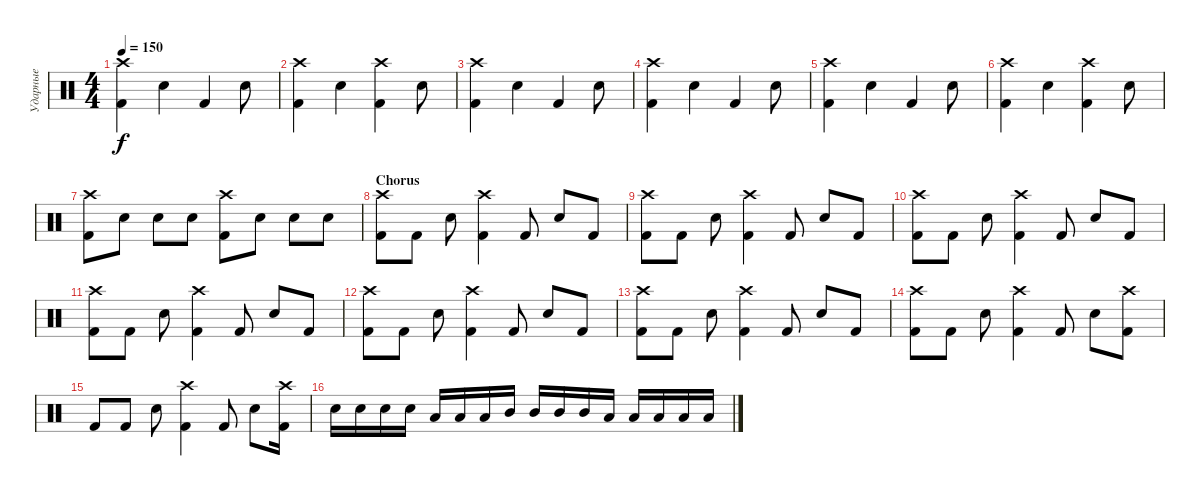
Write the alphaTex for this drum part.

\track ("Ударные" "Ударные") {instrument percussion}
\staff {score}
\articulation defaults
\ts (4 4)
\tempo 150
\clef neutral
\ks c
("Crash high (hit)" "Kick (hit) 2").4{dy f} "Electric Snare (hit)".4 "Kick (hit) 2".4 "Electric Snare (hit)".8 |
("Crash high (hit)" "Kick (hit) 2").4 "Electric Snare (hit)".4 ("Crash high (hit)" "Kick (hit) 2").4 "Electric Snare (hit)".8 |
("Crash high (hit)" "Kick (hit) 2").4 "Electric Snare (hit)".4 "Kick (hit) 2".4 "Electric Snare (hit)".8 |
("Crash high (hit)" "Kick (hit) 2").4 "Electric Snare (hit)".4 "Kick (hit) 2".4 "Electric Snare (hit)".8 |
("Crash high (hit)" "Kick (hit) 2").4 "Electric Snare (hit)".4 "Kick (hit) 2".4 "Electric Snare (hit)".8 |
("Crash high (hit)" "Kick (hit) 2").4 "Electric Snare (hit)".4 ("Crash high (hit)" "Kick (hit) 2").4 "Electric Snare (hit)".8 |
("Crash high (hit)" "Kick (hit) 2").8 "Electric Snare (hit)".8 "Electric Snare (hit)".8 "Electric Snare (hit)".8 ("Crash high (hit)" "Kick (hit) 2").8 "Electric Snare (hit)".8 "Electric Snare (hit)".8 "Electric Snare (hit)".8 |
\section ("" "Chorus")
("Crash high (hit)" "Kick (hit) 2").8 "Kick (hit) 2".8 "Electric Snare (hit)".8 ("Crash high (hit)" "Kick (hit) 2").4 "Kick (hit) 2".8 "Electric Snare (hit)".8 "Kick (hit) 2".8 |
("Crash high (hit)" "Kick (hit) 2").8 "Kick (hit) 2".8 "Electric Snare (hit)".8 ("Crash high (hit)" "Kick (hit) 2").4 "Kick (hit) 2".8 "Electric Snare (hit)".8 "Kick (hit) 2".8 |
("Crash high (hit)" "Kick (hit) 2").8 "Kick (hit) 2".8 "Electric Snare (hit)".8 ("Crash high (hit)" "Kick (hit) 2").4 "Kick (hit) 2".8 "Electric Snare (hit)".8 "Kick (hit) 2".8 |
("Crash high (hit)" "Kick (hit) 2").8 "Kick (hit) 2".8 "Electric Snare (hit)".8 ("Crash high (hit)" "Kick (hit) 2").4 "Kick (hit) 2".8 "Electric Snare (hit)".8 "Kick (hit) 2".8 |
("Crash high (hit)" "Kick (hit) 2").8 "Kick (hit) 2".8 "Electric Snare (hit)".8 ("Crash high (hit)" "Kick (hit) 2").4 "Kick (hit) 2".8 "Electric Snare (hit)".8 "Kick (hit) 2".8 |
("Crash high (hit)" "Kick (hit) 2").8 "Kick (hit) 2".8 "Electric Snare (hit)".8 ("Crash high (hit)" "Kick (hit) 2").4 "Kick (hit) 2".8 "Electric Snare (hit)".8 "Kick (hit) 2".8 |
("Crash high (hit)" "Kick (hit) 2").8 "Kick (hit) 2".8 "Electric Snare (hit)".8 ("Crash high (hit)" "Kick (hit) 2").4 "Kick (hit) 2".8 "Electric Snare (hit)".8 ("Crash high (hit)" "Kick (hit) 2").8 |
"Kick (hit) 2".8 "Kick (hit) 2".8 "Electric Snare (hit)".8 ("Crash high (hit)" "Kick (hit) 2").4 "Kick (hit) 2".8 "Electric Snare (hit)".8 ("Crash high (hit)" "Kick (hit) 2").16 |
"Electric Snare (hit)".16 "Electric Snare (hit)".16 "Electric Snare (hit)".16 "Electric Snare (hit)".16 "Low Tom (hit)".16 "Low Tom (hit)".16 "Low Tom (hit)".16 "Mid Tom (hit)".16 "Mid Tom (hit)".16 "Mid Tom (hit)".16 "Mid Tom (hit)".16 "Low Tom (hit)".16 "Low Tom (hit)".16 "Low Tom (hit)".16 "Low Tom (hit)".16 "Low Tom (hit)".16
